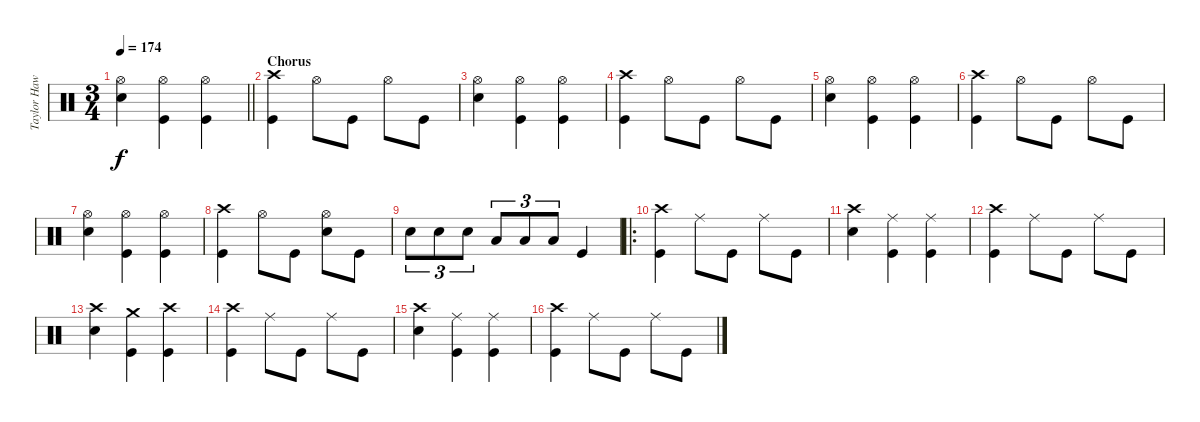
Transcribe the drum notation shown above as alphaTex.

\track ("Taylor Hawkins - Drums" "Taylor Haw") {instrument percussion}
\staff {score}
\articulation defaults
\ts (3 4)
\tempo 174
\clef neutral
\barLineRight lightlight
\ks c
("Hi-Hat (open)" "Snare (hit) 2").4{dy f} ("Hi-Hat (open)" "Kick (hit)").4 ("Hi-Hat (open)" "Kick (hit)").4 |
\section ("" "Chorus")
("Crash high (hit)" "Kick (hit)").4 "Hi-Hat (open)".8 "Kick (hit)".8 "Hi-Hat (open)".8 "Kick (hit)".8 |
("Hi-Hat (open)" "Snare (hit) 2").4 ("Hi-Hat (open)" "Kick (hit)").4 ("Hi-Hat (open)" "Kick (hit)").4 |
("Crash high (hit)" "Kick (hit)").4 "Hi-Hat (open)".8 "Kick (hit)".8 "Hi-Hat (open)".8 "Kick (hit)".8 |
("Hi-Hat (open)" "Snare (hit) 2").4 ("Hi-Hat (open)" "Kick (hit)").4 ("Hi-Hat (open)" "Kick (hit)").4 |
("Crash high (hit)" "Kick (hit)").4 "Hi-Hat (open)".8 "Kick (hit)".8 "Hi-Hat (open)".8 "Kick (hit)".8 |
("Hi-Hat (open)" "Snare (hit) 2").4 ("Hi-Hat (open)" "Kick (hit)").4 ("Hi-Hat (open)" "Kick (hit)").4 |
("Crash high (hit)" "Kick (hit)").4 "Hi-Hat (open)".8 "Kick (hit)".8 ("Hi-Hat (open)" "Snare (hit) 2").8 "Kick (hit)".8 |
"Snare (hit) 2".8{tu (3 2)} "Snare (hit) 2".8{tu (3 2)} "Snare (hit) 2".8{tu (3 2)} "Low Tom (hit)".8{tu (3 2)} "Low Tom (hit)".8{tu (3 2)} "Low Tom (hit)".8{tu (3 2)} "Kick (hit)".4 |
\ro
("Crash high (hit)" "Kick (hit)").4 "Ride (middle)".8 "Kick (hit)".8 "Ride (middle)".8 "Kick (hit)".8 |
("Crash high (hit)" "Snare (hit) 2").4 ("Ride (middle)" "Kick (hit)").4 ("Ride (middle)" "Kick (hit)").4 |
("Crash high (hit)" "Kick (hit)").4 "Ride (middle)".8 "Kick (hit)".8 "Ride (middle)".8 "Kick (hit)".8 |
("Crash high (hit)" "Snare (hit) 2").4 ("Crash medium (hit)" "Kick (hit)").4 ("Crash high (hit)" "Kick (hit)").4 |
("Crash high (hit)" "Kick (hit)").4 "Ride (middle)".8 "Kick (hit)".8 "Ride (middle)".8 "Kick (hit)".8 |
("Crash high (hit)" "Snare (hit) 2").4 ("Ride (middle)" "Kick (hit)").4 ("Ride (middle)" "Kick (hit)").4 |
("Crash high (hit)" "Kick (hit)").4 "Ride (middle)".8 "Kick (hit)".8 "Ride (middle)".8 "Kick (hit)".8
